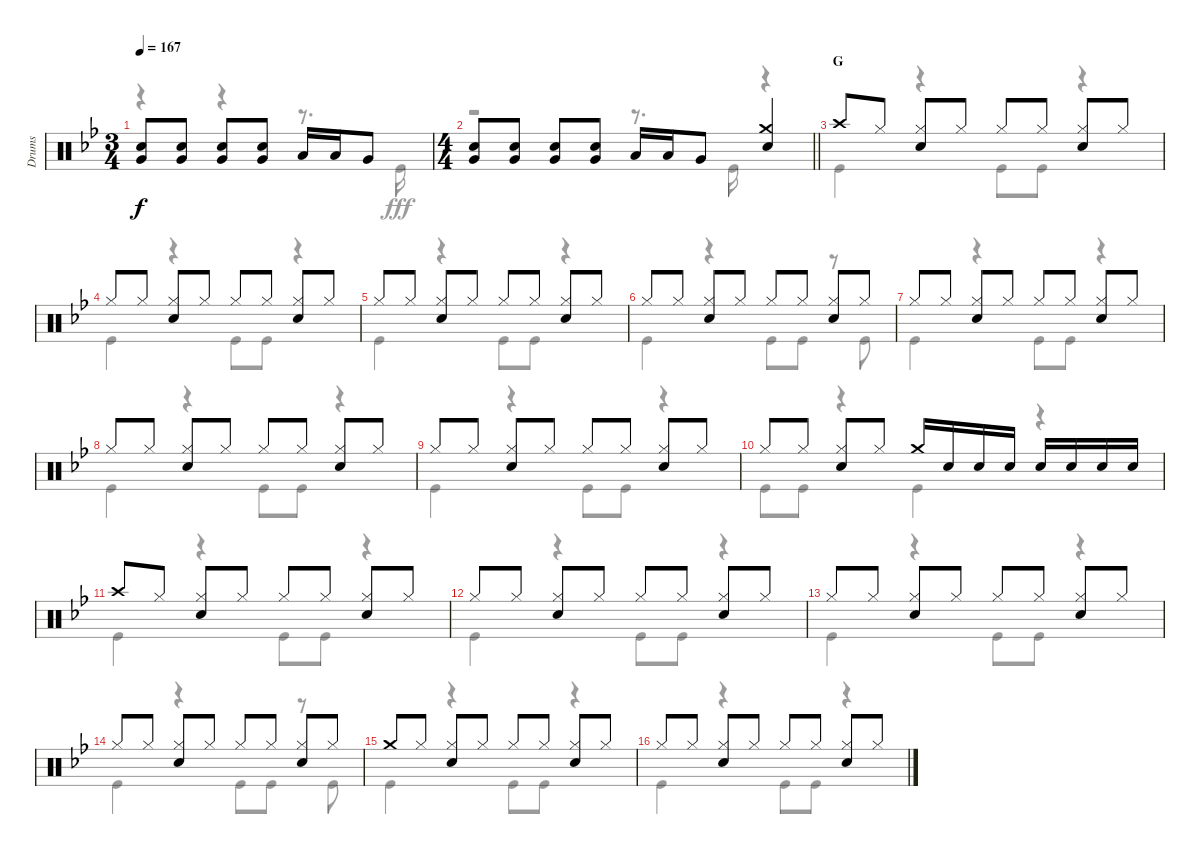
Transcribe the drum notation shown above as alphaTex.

\track ("Drums" "Drums") {instrument percussion}
\staff {score}
\articulation defaults
\voice
\ts (3 4)
\tempo 167
\clef neutral
\ks bb
("Snare (hit) 2" "Very Low Tom (hit)").8{dy f} ("Snare (hit) 2" "Very Low Tom (hit)").8 ("Snare (hit) 2" "Very Low Tom (hit)").8 ("Snare (hit) 2" "Very Low Tom (hit)").8 "Low Tom (hit)".16 "Low Tom (hit)".16 "Very Low Tom (hit)".8 |
\ts (4 4)
\barLineRight lightlight
("Snare (hit) 2" "Very Low Tom (hit)").8 ("Snare (hit) 2" "Very Low Tom (hit)").8 ("Snare (hit) 2" "Very Low Tom (hit)").8 ("Snare (hit) 2" "Very Low Tom (hit)").8 "Low Tom (hit)".16 "Low Tom (hit)".16 "Very Low Tom (hit)".8 ("Crash medium (hit)" "Snare (hit) 2").4 |
\section ("" "G")
"Crash high (hit)".8 "Hi-Hat (closed)".8 ("Hi-Hat (closed)" "Snare (hit) 2").8 "Hi-Hat (closed)".8 "Hi-Hat (closed)".8 "Hi-Hat (closed)".8 ("Hi-Hat (closed)" "Snare (hit) 2").8 "Hi-Hat (closed)".8 |
"Hi-Hat (closed)".8 "Hi-Hat (closed)".8 ("Hi-Hat (closed)" "Snare (hit) 2").8 "Hi-Hat (closed)".8 "Hi-Hat (closed)".8 "Hi-Hat (closed)".8 ("Hi-Hat (closed)" "Snare (hit) 2").8 "Hi-Hat (closed)".8 |
"Hi-Hat (closed)".8 "Hi-Hat (closed)".8 ("Hi-Hat (closed)" "Snare (hit) 2").8 "Hi-Hat (closed)".8 "Hi-Hat (closed)".8 "Hi-Hat (closed)".8 ("Hi-Hat (closed)" "Snare (hit) 2").8 "Hi-Hat (closed)".8 |
"Hi-Hat (closed)".8 "Hi-Hat (closed)".8 ("Hi-Hat (closed)" "Snare (hit) 2").8 "Hi-Hat (closed)".8 "Hi-Hat (closed)".8 "Hi-Hat (closed)".8 ("Hi-Hat (closed)" "Snare (hit) 2").8 "Hi-Hat (closed)".8 |
"Hi-Hat (closed)".8 "Hi-Hat (closed)".8 ("Hi-Hat (closed)" "Snare (hit) 2").8 "Hi-Hat (closed)".8 "Hi-Hat (closed)".8 "Hi-Hat (closed)".8 ("Hi-Hat (closed)" "Snare (hit) 2").8 "Hi-Hat (closed)".8 |
"Hi-Hat (closed)".8 "Hi-Hat (closed)".8 ("Hi-Hat (closed)" "Snare (hit) 2").8 "Hi-Hat (closed)".8 "Hi-Hat (closed)".8 "Hi-Hat (closed)".8 ("Hi-Hat (closed)" "Snare (hit) 2").8 "Hi-Hat (closed)".8 |
"Hi-Hat (closed)".8 "Hi-Hat (closed)".8 ("Hi-Hat (closed)" "Snare (hit) 2").8 "Hi-Hat (closed)".8 "Hi-Hat (closed)".8 "Hi-Hat (closed)".8 ("Hi-Hat (closed)" "Snare (hit) 2").8 "Hi-Hat (closed)".8 |
"Hi-Hat (closed)".8 "Hi-Hat (closed)".8 ("Hi-Hat (closed)" "Snare (hit) 2").8 "Hi-Hat (closed)".8 "Crash medium (hit)".16 "Snare (hit) 2".16 "Snare (hit) 2".16 "Snare (hit) 2".16 "Snare (hit) 2".16 "Snare (hit) 2".16 "Snare (hit) 2".16 "Snare (hit) 2".16 |
"Crash high (hit)".8 "Hi-Hat (closed)".8 ("Hi-Hat (closed)" "Snare (hit) 2").8 "Hi-Hat (closed)".8 "Hi-Hat (closed)".8 "Hi-Hat (closed)".8 ("Hi-Hat (closed)" "Snare (hit) 2").8 "Hi-Hat (closed)".8 |
"Hi-Hat (closed)".8 "Hi-Hat (closed)".8 ("Hi-Hat (closed)" "Snare (hit) 2").8 "Hi-Hat (closed)".8 "Hi-Hat (closed)".8 "Hi-Hat (closed)".8 ("Hi-Hat (closed)" "Snare (hit) 2").8 "Hi-Hat (closed)".8 |
"Hi-Hat (closed)".8 "Hi-Hat (closed)".8 ("Hi-Hat (closed)" "Snare (hit) 2").8 "Hi-Hat (closed)".8 "Hi-Hat (closed)".8 "Hi-Hat (closed)".8 ("Hi-Hat (closed)" "Snare (hit) 2").8 "Hi-Hat (closed)".8 |
"Hi-Hat (closed)".8 "Hi-Hat (closed)".8 ("Hi-Hat (closed)" "Snare (hit) 2").8 "Hi-Hat (closed)".8 "Hi-Hat (closed)".8 "Hi-Hat (closed)".8 ("Hi-Hat (closed)" "Snare (hit) 2").8 "Hi-Hat (closed)".8 |
"Crash medium (hit)".8 "Hi-Hat (closed)".8 ("Hi-Hat (closed)" "Snare (hit) 2").8 "Hi-Hat (closed)".8 "Hi-Hat (closed)".8 "Hi-Hat (closed)".8 ("Hi-Hat (closed)" "Snare (hit) 2").8 "Hi-Hat (closed)".8 |
"Hi-Hat (closed)".8 "Hi-Hat (closed)".8 ("Hi-Hat (closed)" "Snare (hit) 2").8 "Hi-Hat (closed)".8 "Hi-Hat (closed)".8 "Hi-Hat (closed)".8 ("Hi-Hat (closed)" "Snare (hit) 2").8 "Hi-Hat (closed)".8
\voice
\clef neutral
\ottava regular
\simile none
\ks bb
r.4{dy fff} r.4 r.8{d} "Kick (hit)".16 |
\barLineRight lightlight
r.2 r.8{d} "Kick (hit)".16 r.4 |
"Kick (hit)".4 r.4 "Kick (hit)".8 "Kick (hit)".8 r.4 |
"Kick (hit)".4 r.4 "Kick (hit)".8 "Kick (hit)".8 r.4 |
"Kick (hit)".4 r.4 "Kick (hit)".8 "Kick (hit)".8 r.4 |
"Kick (hit)".4 r.4 "Kick (hit)".8 "Kick (hit)".8 r.8 "Kick (hit)".8 |
"Kick (hit)".4 r.4 "Kick (hit)".8 "Kick (hit)".8 r.4 |
"Kick (hit)".4 r.4 "Kick (hit)".8 "Kick (hit)".8 r.4 |
"Kick (hit)".4 r.4 "Kick (hit)".8 "Kick (hit)".8 r.4 |
"Kick (hit)".8 "Kick (hit)".8 r.4 "Kick (hit)".4 r.4 |
"Kick (hit)".4 r.4 "Kick (hit)".8 "Kick (hit)".8 r.4 |
"Kick (hit)".4 r.4 "Kick (hit)".8 "Kick (hit)".8 r.4 |
"Kick (hit)".4 r.4 "Kick (hit)".8 "Kick (hit)".8 r.4 |
"Kick (hit)".4 r.4 "Kick (hit)".8 "Kick (hit)".8 r.8 "Kick (hit)".8 |
"Kick (hit)".4 r.4 "Kick (hit)".8 "Kick (hit)".8 r.4 |
"Kick (hit)".4 r.4 "Kick (hit)".8 "Kick (hit)".8 r.4
